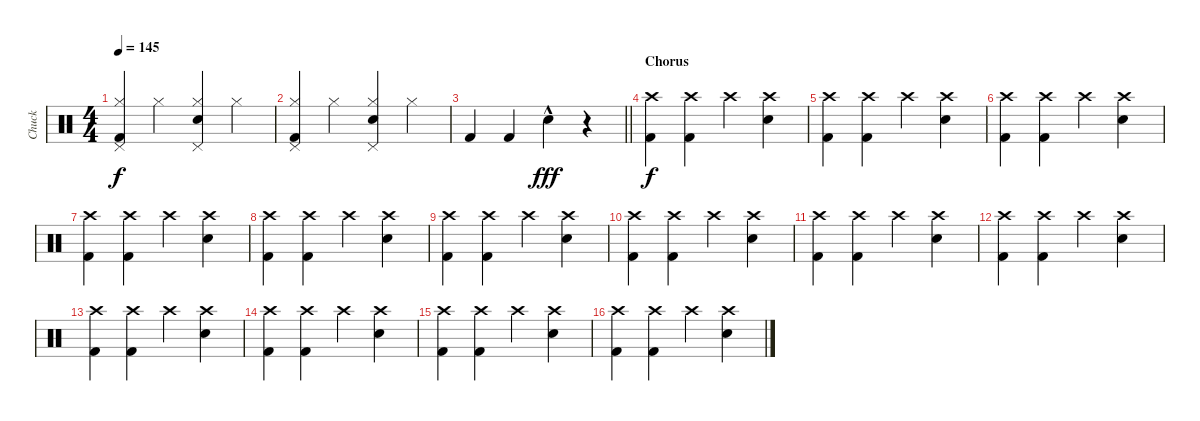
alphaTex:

\track ("Chuck" "Chuck") {instrument percussion}
\staff {score}
\articulation defaults
\ts (4 4)
\tempo 145
\clef neutral
\ks c
("Pedal Hi-Hat (hit)" "Hi-Hat (closed)" "Kick (hit) 2").4{dy f} "Hi-Hat (closed)".4 ("Pedal Hi-Hat (hit)" "Hi-Hat (closed)" "Snare (hit) 2").4 "Hi-Hat (closed)".4 |
("Pedal Hi-Hat (hit)" "Hi-Hat (closed)" "Kick (hit) 2").4 "Hi-Hat (closed)".4 ("Pedal Hi-Hat (hit)" "Hi-Hat (closed)" "Snare (hit) 2").4 "Hi-Hat (closed)".4 |
\barLineRight lightlight "Kick (hit) 2".4 "Kick (hit) 2".4 "Snare (hit) 2"{hac}.4{dy fff}
r.4 |
\section ("" "Chorus")
("Crash high (hit)" "Kick (hit) 2").4{dy f} ("Crash high (hit)" "Kick (hit) 2").4 "Crash high (hit)".4 ("Crash high (hit)" "Snare (hit) 2").4 |
("Crash high (hit)" "Kick (hit) 2").4 ("Crash high (hit)" "Kick (hit) 2").4 "Crash high (hit)".4 ("Crash high (hit)" "Snare (hit) 2").4 |
("Crash high (hit)" "Kick (hit) 2").4 ("Crash high (hit)" "Kick (hit) 2").4 "Crash high (hit)".4 ("Crash high (hit)" "Snare (hit) 2").4 |
("Crash high (hit)" "Kick (hit) 2").4 ("Crash high (hit)" "Kick (hit) 2").4 "Crash high (hit)".4 ("Crash high (hit)" "Snare (hit) 2").4 |
("Crash high (hit)" "Kick (hit) 2").4 ("Crash high (hit)" "Kick (hit) 2").4 "Crash high (hit)".4 ("Crash high (hit)" "Snare (hit) 2").4 |
("Crash high (hit)" "Kick (hit) 2").4 ("Crash high (hit)" "Kick (hit) 2").4 "Crash high (hit)".4 ("Crash high (hit)" "Snare (hit) 2").4 |
("Crash high (hit)" "Kick (hit) 2").4 ("Crash high (hit)" "Kick (hit) 2").4 "Crash high (hit)".4 ("Crash high (hit)" "Snare (hit) 2").4 |
("Crash high (hit)" "Kick (hit) 2").4 ("Crash high (hit)" "Kick (hit) 2").4 "Crash high (hit)".4 ("Crash high (hit)" "Snare (hit) 2").4 |
("Crash high (hit)" "Kick (hit) 2").4 ("Crash high (hit)" "Kick (hit) 2").4 "Crash high (hit)".4 ("Crash high (hit)" "Snare (hit) 2").4 |
("Crash high (hit)" "Kick (hit) 2").4 ("Crash high (hit)" "Kick (hit) 2").4 "Crash high (hit)".4 ("Crash high (hit)" "Snare (hit) 2").4 |
("Crash high (hit)" "Kick (hit) 2").4 ("Crash high (hit)" "Kick (hit) 2").4 "Crash high (hit)".4 ("Crash high (hit)" "Snare (hit) 2").4 |
("Crash high (hit)" "Kick (hit) 2").4 ("Crash high (hit)" "Kick (hit) 2").4 "Crash high (hit)".4 ("Crash high (hit)" "Snare (hit) 2").4 |
("Crash high (hit)" "Kick (hit) 2").4 ("Crash high (hit)" "Kick (hit) 2").4 "Crash high (hit)".4 ("Crash high (hit)" "Snare (hit) 2").4
